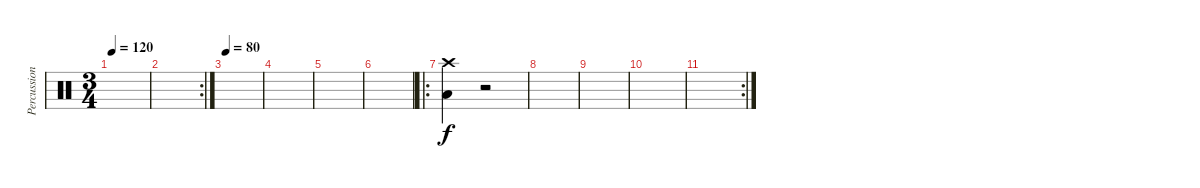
\track ("Percussion" "Percussion") {instrument percussion}
\staff {score}
\articulation defaults
\ts (3 4)
\tempo 120
\clef neutral
\ks c
|
\rc 2
|
\tempo 80
|
|
|
|
\ro
("Low Floor Tom (hit)" "Crash high (hit)").4 r.2 |
|
|
|
\rc 2
